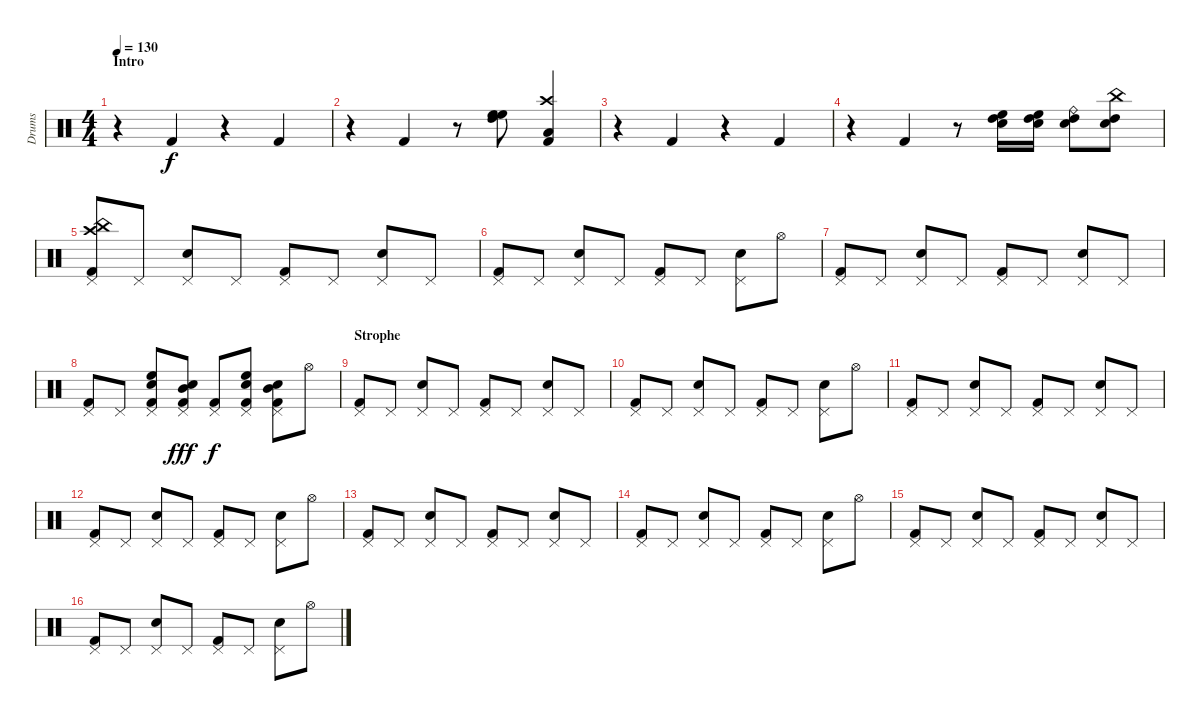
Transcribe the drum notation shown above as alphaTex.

\track ("Drums" "Drums") {instrument percussion}
\staff {score}
\articulation defaults
\ts (4 4)
\section ("" "Intro")
\tempo 130
\clef neutral
\ks c
r.4{dy f} "Kick (hit) 2".4 r.4 "Kick (hit) 2".4 |
r.4 "Kick (hit) 2".4 r.8 ("High Floor Tom (hit)" "High Floor Tom (hit)" "High Tom (hit)").8 ("Crash high (hit)" "Kick (hit) 2" "Low Tom (hit)").4 |
r.4 "Kick (hit) 2".4 r.4 "Kick (hit) 2".4 |
r.4 "Kick (hit) 2".4 r.8 ("High Tom (hit)" "High Floor Tom (hit)" "Snare (hit) 2").16 ("High Tom (hit)" "High Floor Tom (hit)" "Snare (hit)").16 ("High Tom (hit)" "Ride (bell)" "Snare (hit) 2").8 ("High Tom (hit)" "China (hit)" "Snare (hit) 2").8 |
("China (hit)" "Crash high (hit)" "Pedal Hi-Hat (hit)" "Kick (hit) 2").8 "Pedal Hi-Hat (hit)".8 ("Pedal Hi-Hat (hit)" "Snare (hit) 2").8 "Pedal Hi-Hat (hit)".8 ("Pedal Hi-Hat (hit)" "Kick (hit) 2").8 "Pedal Hi-Hat (hit)".8 ("Pedal Hi-Hat (hit)" "Snare (hit) 2").8 "Pedal Hi-Hat (hit)".8 |
("Pedal Hi-Hat (hit)" "Kick (hit) 2").8 "Pedal Hi-Hat (hit)".8 ("Pedal Hi-Hat (hit)" "Snare (hit) 2").8 "Pedal Hi-Hat (hit)".8 ("Pedal Hi-Hat (hit)" "Kick (hit) 2").8 "Pedal Hi-Hat (hit)".8 ("Pedal Hi-Hat (hit)" "Snare (hit) 2").8 "Hi-Hat (open)".8 |
("Pedal Hi-Hat (hit)" "Kick (hit) 2").8 "Pedal Hi-Hat (hit)".8 ("Pedal Hi-Hat (hit)" "Snare (hit) 2").8 "Pedal Hi-Hat (hit)".8 ("Pedal Hi-Hat (hit)" "Kick (hit) 2").8 "Pedal Hi-Hat (hit)".8 ("Pedal Hi-Hat (hit)" "Snare (hit) 2").8 "Pedal Hi-Hat (hit)".8 |
("Pedal Hi-Hat (hit)" "Kick (hit) 2").8 "Pedal Hi-Hat (hit)".8 ("High Floor Tom (hit)" "Kick (hit) 2" "Pedal Hi-Hat (hit)" "Snare (hit) 2").8 ("Mid Tom (hit)" "Kick (hit) 2" "Pedal Hi-Hat (hit)" "Snare (hit) 2").8{dy fff} ("Pedal Hi-Hat (hit)" "Kick (hit) 2").8{dy f} ("High Floor Tom (hit)" "Kick (hit) 2" "Pedal Hi-Hat (hit)" "Snare (hit) 2").8 ("Mid Tom (hit)" "Kick (hit) 2" "Pedal Hi-Hat (hit)" "Snare (hit) 2").8 "Hi-Hat (open)".8 |
\section ("" "Strophe")
("Pedal Hi-Hat (hit)" "Kick (hit) 2").8 "Pedal Hi-Hat (hit)".8 ("Pedal Hi-Hat (hit)" "Snare (hit) 2").8 "Pedal Hi-Hat (hit)".8 ("Pedal Hi-Hat (hit)" "Kick (hit) 2").8 "Pedal Hi-Hat (hit)".8 ("Pedal Hi-Hat (hit)" "Snare (hit) 2").8 "Pedal Hi-Hat (hit)".8 |
("Pedal Hi-Hat (hit)" "Kick (hit) 2").8 "Pedal Hi-Hat (hit)".8 ("Pedal Hi-Hat (hit)" "Snare (hit) 2").8 "Pedal Hi-Hat (hit)".8 ("Pedal Hi-Hat (hit)" "Kick (hit) 2").8 "Pedal Hi-Hat (hit)".8 ("Pedal Hi-Hat (hit)" "Snare (hit) 2").8 "Hi-Hat (open)".8 |
("Pedal Hi-Hat (hit)" "Kick (hit) 2").8 "Pedal Hi-Hat (hit)".8 ("Pedal Hi-Hat (hit)" "Snare (hit) 2").8 "Pedal Hi-Hat (hit)".8 ("Pedal Hi-Hat (hit)" "Kick (hit) 2").8 "Pedal Hi-Hat (hit)".8 ("Pedal Hi-Hat (hit)" "Snare (hit) 2").8 "Pedal Hi-Hat (hit)".8 |
("Pedal Hi-Hat (hit)" "Kick (hit) 2").8 "Pedal Hi-Hat (hit)".8 ("Pedal Hi-Hat (hit)" "Snare (hit) 2").8 "Pedal Hi-Hat (hit)".8 ("Pedal Hi-Hat (hit)" "Kick (hit) 2").8 "Pedal Hi-Hat (hit)".8 ("Pedal Hi-Hat (hit)" "Snare (hit) 2").8 "Hi-Hat (open)".8 |
("Pedal Hi-Hat (hit)" "Kick (hit) 2").8 "Pedal Hi-Hat (hit)".8 ("Pedal Hi-Hat (hit)" "Snare (hit) 2").8 "Pedal Hi-Hat (hit)".8 ("Pedal Hi-Hat (hit)" "Kick (hit) 2").8 "Pedal Hi-Hat (hit)".8 ("Pedal Hi-Hat (hit)" "Snare (hit) 2").8 "Pedal Hi-Hat (hit)".8 |
("Pedal Hi-Hat (hit)" "Kick (hit) 2").8 "Pedal Hi-Hat (hit)".8 ("Pedal Hi-Hat (hit)" "Snare (hit) 2").8 "Pedal Hi-Hat (hit)".8 ("Pedal Hi-Hat (hit)" "Kick (hit) 2").8 "Pedal Hi-Hat (hit)".8 ("Pedal Hi-Hat (hit)" "Snare (hit) 2").8 "Hi-Hat (open)".8 |
("Pedal Hi-Hat (hit)" "Kick (hit) 2").8 "Pedal Hi-Hat (hit)".8 ("Pedal Hi-Hat (hit)" "Snare (hit) 2").8 "Pedal Hi-Hat (hit)".8 ("Pedal Hi-Hat (hit)" "Kick (hit) 2").8 "Pedal Hi-Hat (hit)".8 ("Pedal Hi-Hat (hit)" "Snare (hit) 2").8 "Pedal Hi-Hat (hit)".8 |
("Pedal Hi-Hat (hit)" "Kick (hit) 2").8 "Pedal Hi-Hat (hit)".8 ("Pedal Hi-Hat (hit)" "Snare (hit) 2").8 "Pedal Hi-Hat (hit)".8 ("Pedal Hi-Hat (hit)" "Kick (hit) 2").8 "Pedal Hi-Hat (hit)".8 ("Pedal Hi-Hat (hit)" "Snare (hit) 2").8 "Hi-Hat (open)".8
